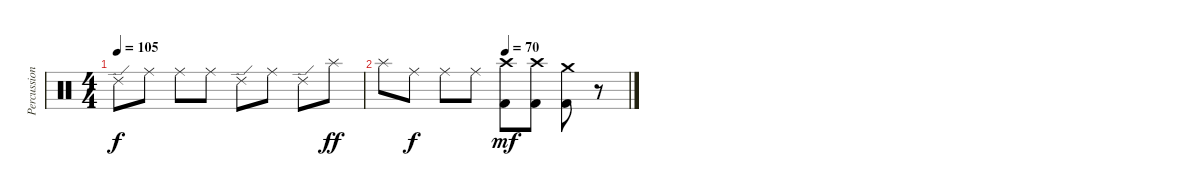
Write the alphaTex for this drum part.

\track ("Percussion" "Percussion") {instrument percussion}
\staff {score}
\articulation defaults
\ts (4 4)
\tempo 105
\clef neutral
\ks c "Ride (edge) 2".8{dy f} "Ride (middle)".8 "Ride (middle)".8 "Ride (middle)".8 "Ride (edge) 2".8 "Ride (middle)".8 "Ride (edge) 2".8 "Splash (hit)".8{dy ff}
|
\tempo (70 0.5)
"Splash (hit)".8 "Ride (middle)".8{dy f} "Ride (middle)".8 "Ride (middle)".8 ("Crash high (hit)" "Kick (hit) 2").8{dy mf} ("Crash high (hit)" "Kick (hit) 2").8 ("Crash medium (hit)" "Kick (hit) 2").8 r.8
